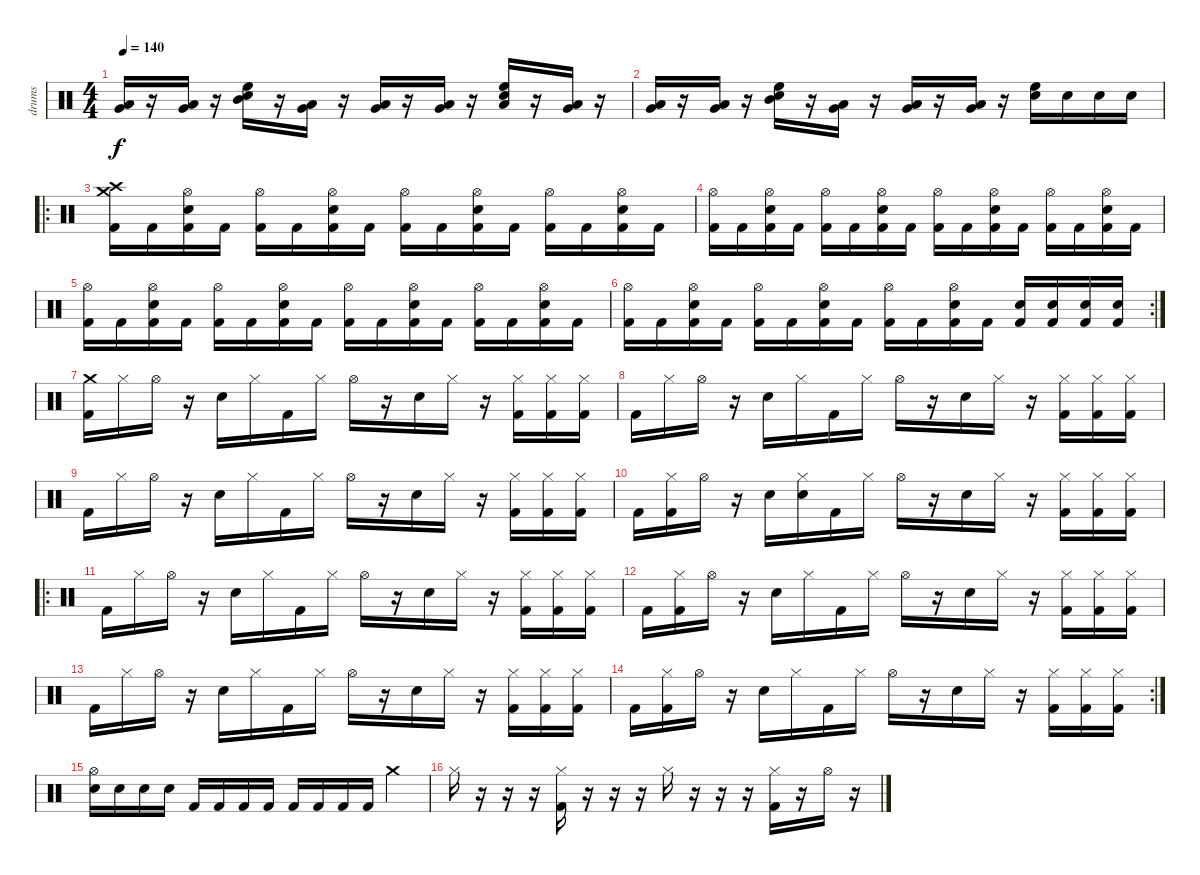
\track ("drums" "drums") {instrument percussion}
\staff {score}
\articulation defaults
\ts (4 4)
\tempo 140
\clef neutral
\ks c
("Very Low Tom (hit)" "Low Tom (hit)").16{dy f} r.16 ("Very Low Tom (hit)" "Low Tom (hit)").16 r.16 ("High Floor Tom (hit)" "Electric Snare (hit)" "Mid Tom (hit)").16 r.16 ("Very Low Tom (hit)" "Low Tom (hit)").16 r.16 ("Very Low Tom (hit)" "Low Tom (hit)").16 r.16 ("Very Low Tom (hit)" "Low Tom (hit)").16 r.16 ("High Floor Tom (hit)" "Electric Snare (hit)" "Low Tom (hit)").16 r.16 ("Very Low Tom (hit)" "Low Tom (hit)").16 r.16 |
("Very Low Tom (hit)" "Low Tom (hit)").16 r.16 ("Very Low Tom (hit)" "Low Tom (hit)").16 r.16 ("High Floor Tom (hit)" "Electric Snare (hit)" "Mid Tom (hit)").16 r.16 ("Very Low Tom (hit)" "Low Tom (hit)").16 r.16 ("Very Low Tom (hit)" "Low Tom (hit)").16 r.16 ("Very Low Tom (hit)" "Low Tom (hit)").16 r.16 ("High Floor Tom (hit)" "Electric Snare (hit)").16 "Electric Snare (hit)".16 "Electric Snare (hit)".16 "Electric Snare (hit)".16 |
\ro
("Crash medium (hit)" "Crash high (hit)" "Kick (hit) 2").16 "Kick (hit) 2".16 ("Hi-Hat (open)" "Electric Snare (hit)" "Kick (hit) 2").16 "Kick (hit) 2".16 ("Hi-Hat (open)" "Kick (hit) 2").16 "Kick (hit) 2".16 ("Hi-Hat (open)" "Electric Snare (hit)" "Kick (hit) 2").16 "Kick (hit) 2".16 ("Hi-Hat (open)" "Kick (hit) 2").16 "Kick (hit) 2".16 ("Hi-Hat (open)" "Electric Snare (hit)" "Kick (hit) 2").16 "Kick (hit) 2".16 ("Hi-Hat (open)" "Kick (hit) 2").16 "Kick (hit) 2".16 ("Hi-Hat (open)" "Electric Snare (hit)" "Kick (hit) 2").16 "Kick (hit) 2".16 |
("Hi-Hat (open)" "Kick (hit) 2").16 "Kick (hit) 2".16 ("Hi-Hat (open)" "Electric Snare (hit)" "Kick (hit) 2").16 "Kick (hit) 2".16 ("Hi-Hat (open)" "Kick (hit) 2").16 "Kick (hit) 2".16 ("Hi-Hat (open)" "Electric Snare (hit)" "Kick (hit) 2").16 "Kick (hit) 2".16 ("Hi-Hat (open)" "Kick (hit) 2").16 "Kick (hit) 2".16 ("Hi-Hat (open)" "Electric Snare (hit)" "Kick (hit) 2").16 "Kick (hit) 2".16 ("Hi-Hat (open)" "Kick (hit) 2").16 "Kick (hit) 2".16 ("Hi-Hat (open)" "Electric Snare (hit)" "Kick (hit) 2").16 "Kick (hit) 2".16 |
("Hi-Hat (open)" "Kick (hit) 2").16 "Kick (hit) 2".16 ("Hi-Hat (open)" "Electric Snare (hit)" "Kick (hit) 2").16 "Kick (hit) 2".16 ("Hi-Hat (open)" "Kick (hit) 2").16 "Kick (hit) 2".16 ("Hi-Hat (open)" "Electric Snare (hit)" "Kick (hit) 2").16 "Kick (hit) 2".16 ("Hi-Hat (open)" "Kick (hit) 2").16 "Kick (hit) 2".16 ("Hi-Hat (open)" "Electric Snare (hit)" "Kick (hit) 2").16 "Kick (hit) 2".16 ("Hi-Hat (open)" "Kick (hit) 2").16 "Kick (hit) 2".16 ("Hi-Hat (open)" "Electric Snare (hit)" "Kick (hit) 2").16 "Kick (hit) 2".16 |
\rc 2
("Hi-Hat (open)" "Kick (hit) 2").16 "Kick (hit) 2".16 ("Hi-Hat (open)" "Electric Snare (hit)" "Kick (hit) 2").16 "Kick (hit) 2".16 ("Hi-Hat (open)" "Kick (hit) 2").16 "Kick (hit) 2".16 ("Hi-Hat (open)" "Electric Snare (hit)" "Kick (hit) 2").16 "Kick (hit) 2".16 ("Hi-Hat (open)" "Kick (hit) 2").16 "Kick (hit) 2".16 ("Hi-Hat (open)" "Electric Snare (hit)" "Kick (hit) 2").16 "Kick (hit) 2".16 ("Electric Snare (hit)" "Kick (hit) 2").16 ("Electric Snare (hit)" "Kick (hit) 2").16 ("Electric Snare (hit)" "Kick (hit) 2").16 ("Electric Snare (hit)" "Kick (hit) 2").16 |
("Crash medium (hit)" "Kick (hit) 2").16 "Hi-Hat (closed)".16 "Hi-Hat (open)".16 r.16 "Electric Snare (hit)".16 "Hi-Hat (closed)".16 "Kick (hit) 2".16 "Hi-Hat (closed)".16 "Hi-Hat (open)".16 r.16 "Electric Snare (hit)".16 "Hi-Hat (closed)".16 r.16 ("Hi-Hat (closed)" "Kick (hit) 2").16 ("Hi-Hat (closed)" "Kick (hit) 2").16 ("Hi-Hat (closed)" "Kick (hit) 2").16 |
"Kick (hit) 2".16 "Hi-Hat (closed)".16 "Hi-Hat (open)".16 r.16 "Electric Snare (hit)".16 "Hi-Hat (closed)".16 "Kick (hit) 2".16 "Hi-Hat (closed)".16 "Hi-Hat (open)".16 r.16 "Electric Snare (hit)".16 "Hi-Hat (closed)".16 r.16 ("Hi-Hat (closed)" "Kick (hit) 2").16 ("Hi-Hat (closed)" "Kick (hit) 2").16 ("Hi-Hat (closed)" "Kick (hit) 2").16 |
"Kick (hit) 2".16 "Hi-Hat (closed)".16 "Hi-Hat (open)".16 r.16 "Electric Snare (hit)".16 "Hi-Hat (closed)".16 "Kick (hit) 2".16 "Hi-Hat (closed)".16 "Hi-Hat (open)".16 r.16 "Electric Snare (hit)".16 "Hi-Hat (closed)".16 r.16 ("Hi-Hat (closed)" "Kick (hit) 2").16 ("Hi-Hat (closed)" "Kick (hit) 2").16 ("Hi-Hat (closed)" "Kick (hit) 2").16 |
"Kick (hit) 2".16 ("Hi-Hat (closed)" "Kick (hit) 2").16 "Hi-Hat (open)".16 r.16 "Electric Snare (hit)".16 ("Hi-Hat (closed)" "Electric Snare (hit)").16 "Kick (hit) 2".16 "Hi-Hat (closed)".16 "Hi-Hat (open)".16 r.16 "Electric Snare (hit)".16 "Hi-Hat (closed)".16 r.16 ("Hi-Hat (closed)" "Kick (hit) 2").16 ("Hi-Hat (closed)" "Kick (hit) 2").16 ("Hi-Hat (closed)" "Kick (hit) 2").16 |
\ro "Kick (hit) 2".16 "Hi-Hat (closed)".16 "Hi-Hat (open)".16
r.16 "Electric Snare (hit)".16 "Hi-Hat (closed)".16 "Kick (hit) 2".16 "Hi-Hat (closed)".16 "Hi-Hat (open)".16 r.16 "Electric Snare (hit)".16 "Hi-Hat (closed)".16 r.16 ("Hi-Hat (closed)" "Kick (hit) 2").16 ("Hi-Hat (closed)" "Kick (hit) 2").16 ("Hi-Hat (closed)" "Kick (hit) 2").16 |
"Kick (hit) 2".16 ("Hi-Hat (closed)" "Kick (hit) 2").16 "Hi-Hat (open)".16 r.16 "Electric Snare (hit)".16 "Hi-Hat (closed)".16 "Kick (hit) 2".16 "Hi-Hat (closed)".16 "Hi-Hat (open)".16 r.16 "Electric Snare (hit)".16 "Hi-Hat (closed)".16 r.16 ("Hi-Hat (closed)" "Kick (hit) 2").16 ("Hi-Hat (closed)" "Kick (hit) 2").16 ("Hi-Hat (closed)" "Kick (hit) 2").16 |
"Kick (hit) 2".16 "Hi-Hat (closed)".16 "Hi-Hat (open)".16 r.16 "Electric Snare (hit)".16 "Hi-Hat (closed)".16 "Kick (hit) 2".16 "Hi-Hat (closed)".16 "Hi-Hat (open)".16 r.16 "Electric Snare (hit)".16 "Hi-Hat (closed)".16 r.16 ("Hi-Hat (closed)" "Kick (hit) 2").16 ("Hi-Hat (closed)" "Kick (hit) 2").16 ("Hi-Hat (closed)" "Kick (hit) 2").16 |
\rc 2 "Kick (hit) 2".16
("Hi-Hat (closed)" "Kick (hit) 2").16 "Hi-Hat (open)".16 r.16 "Electric Snare (hit)".16 "Hi-Hat (closed)".16 "Kick (hit) 2".16 "Hi-Hat (closed)".16 "Hi-Hat (open)".16 r.16 "Electric Snare (hit)".16 "Hi-Hat (closed)".16 r.16 ("Hi-Hat (closed)" "Kick (hit) 2").16 ("Hi-Hat (closed)" "Kick (hit) 2").16 ("Hi-Hat (closed)" "Kick (hit) 2").16 |
("Hi-Hat (open)" "Electric Snare (hit)").16 "Electric Snare (hit)".16 "Electric Snare (hit)".16 "Electric Snare (hit)".16 "Kick (hit) 2".16 "Kick (hit) 2".16 "Kick (hit) 2".16 "Kick (hit) 2".16 "Kick (hit) 2".16 "Kick (hit) 2".16 "Kick (hit) 2".16 "Kick (hit) 2".16 "Crash medium (hit)".4 |
"Hi-Hat (closed)".16 r.16 r.16 r.16 ("Hi-Hat (closed)" "Kick (hit) 2").16 r.16 r.16 r.16 "Hi-Hat (closed)".16 r.16 r.16 r.16 ("Hi-Hat (closed)" "Kick (hit) 2").16 r.16 "Hi-Hat (open)".16 r.16
